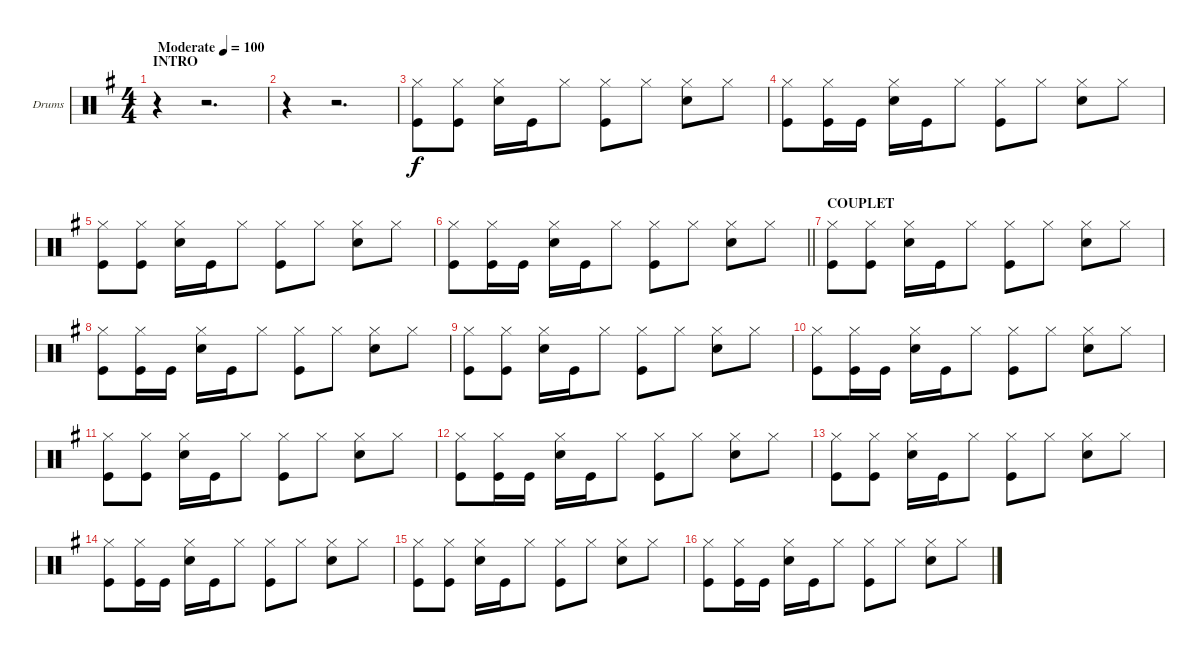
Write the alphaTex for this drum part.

\bracketExtendMode groupsimilarinstruments
\firstSystemTrackNameOrientation horizontal
\otherSystemsTrackNameOrientation horizontal
\track ("Drumkit" "Drums") {instrument percussion}
\staff {score}
\articulation defaults
\ts (4 4)
\beaming (8 2 2 2 2)
\section ("" "INTRO")
\tempo (100 "Moderate")
\clef neutral
\ks eminor
r.4{dy f} r.2{d} |
r.4 r.2{d} |
("Hi-Hat (closed)" "Kick (hit)").8 ("Hi-Hat (closed)" "Kick (hit)").8 ("Hi-Hat (closed)" "Snare (hit) 2").16 "Kick (hit)".16 "Hi-Hat (closed)".8 ("Hi-Hat (closed)" "Kick (hit)").8 "Hi-Hat (closed)".8 ("Hi-Hat (closed)" "Snare (hit) 2").8 "Hi-Hat (closed)".8 |
("Hi-Hat (closed)" "Kick (hit)").8 ("Hi-Hat (closed)" "Kick (hit)").16 "Kick (hit)".16 ("Hi-Hat (closed)" "Snare (hit) 2").16 "Kick (hit)".16 "Hi-Hat (closed)".8 ("Hi-Hat (closed)" "Kick (hit)").8 "Hi-Hat (closed)".8 ("Hi-Hat (closed)" "Snare (hit) 2").8 "Hi-Hat (closed)".8 |
("Hi-Hat (closed)" "Kick (hit)").8 ("Hi-Hat (closed)" "Kick (hit)").8 ("Hi-Hat (closed)" "Snare (hit) 2").16 "Kick (hit)".16 "Hi-Hat (closed)".8 ("Hi-Hat (closed)" "Kick (hit)").8 "Hi-Hat (closed)".8 ("Hi-Hat (closed)" "Snare (hit) 2").8 "Hi-Hat (closed)".8 |
\barLineRight lightlight
("Hi-Hat (closed)" "Kick (hit)").8 ("Hi-Hat (closed)" "Kick (hit)").16 "Kick (hit)".16 ("Hi-Hat (closed)" "Snare (hit) 2").16 "Kick (hit)".16 "Hi-Hat (closed)".8 ("Hi-Hat (closed)" "Kick (hit)").8 "Hi-Hat (closed)".8 ("Hi-Hat (closed)" "Snare (hit) 2").8 "Hi-Hat (closed)".8 |
\section ("" "COUPLET")
("Hi-Hat (closed)" "Kick (hit)").8 ("Hi-Hat (closed)" "Kick (hit)").8 ("Hi-Hat (closed)" "Snare (hit) 2").16 "Kick (hit)".16 "Hi-Hat (closed)".8 ("Hi-Hat (closed)" "Kick (hit)").8 "Hi-Hat (closed)".8 ("Hi-Hat (closed)" "Snare (hit) 2").8 "Hi-Hat (closed)".8 |
("Hi-Hat (closed)" "Kick (hit)").8 ("Hi-Hat (closed)" "Kick (hit)").16 "Kick (hit)".16 ("Hi-Hat (closed)" "Snare (hit) 2").16 "Kick (hit)".16 "Hi-Hat (closed)".8 ("Hi-Hat (closed)" "Kick (hit)").8 "Hi-Hat (closed)".8 ("Hi-Hat (closed)" "Snare (hit) 2").8 "Hi-Hat (closed)".8 |
("Hi-Hat (closed)" "Kick (hit)").8 ("Hi-Hat (closed)" "Kick (hit)").8 ("Hi-Hat (closed)" "Snare (hit) 2").16 "Kick (hit)".16 "Hi-Hat (closed)".8 ("Hi-Hat (closed)" "Kick (hit)").8 "Hi-Hat (closed)".8 ("Hi-Hat (closed)" "Snare (hit) 2").8 "Hi-Hat (closed)".8 |
("Hi-Hat (closed)" "Kick (hit)").8 ("Hi-Hat (closed)" "Kick (hit)").16 "Kick (hit)".16 ("Hi-Hat (closed)" "Snare (hit) 2").16 "Kick (hit)".16 "Hi-Hat (closed)".8 ("Hi-Hat (closed)" "Kick (hit)").8 "Hi-Hat (closed)".8 ("Hi-Hat (closed)" "Snare (hit) 2").8 "Hi-Hat (closed)".8 |
("Hi-Hat (closed)" "Kick (hit)").8 ("Hi-Hat (closed)" "Kick (hit)").8 ("Hi-Hat (closed)" "Snare (hit) 2").16 "Kick (hit)".16 "Hi-Hat (closed)".8 ("Hi-Hat (closed)" "Kick (hit)").8 "Hi-Hat (closed)".8 ("Hi-Hat (closed)" "Snare (hit) 2").8 "Hi-Hat (closed)".8 |
("Hi-Hat (closed)" "Kick (hit)").8 ("Hi-Hat (closed)" "Kick (hit)").16 "Kick (hit)".16 ("Hi-Hat (closed)" "Snare (hit) 2").16 "Kick (hit)".16 "Hi-Hat (closed)".8 ("Hi-Hat (closed)" "Kick (hit)").8 "Hi-Hat (closed)".8 ("Hi-Hat (closed)" "Snare (hit) 2").8 "Hi-Hat (closed)".8 |
("Hi-Hat (closed)" "Kick (hit)").8 ("Hi-Hat (closed)" "Kick (hit)").8 ("Hi-Hat (closed)" "Snare (hit) 2").16 "Kick (hit)".16 "Hi-Hat (closed)".8 ("Hi-Hat (closed)" "Kick (hit)").8 "Hi-Hat (closed)".8 ("Hi-Hat (closed)" "Snare (hit) 2").8 "Hi-Hat (closed)".8 |
("Hi-Hat (closed)" "Kick (hit)").8 ("Hi-Hat (closed)" "Kick (hit)").16 "Kick (hit)".16 ("Hi-Hat (closed)" "Snare (hit) 2").16 "Kick (hit)".16 "Hi-Hat (closed)".8 ("Hi-Hat (closed)" "Kick (hit)").8 "Hi-Hat (closed)".8 ("Hi-Hat (closed)" "Snare (hit) 2").8 "Hi-Hat (closed)".8 |
("Hi-Hat (closed)" "Kick (hit)").8 ("Hi-Hat (closed)" "Kick (hit)").8 ("Hi-Hat (closed)" "Snare (hit) 2").16 "Kick (hit)".16 "Hi-Hat (closed)".8 ("Hi-Hat (closed)" "Kick (hit)").8 "Hi-Hat (closed)".8 ("Hi-Hat (closed)" "Snare (hit) 2").8 "Hi-Hat (closed)".8 |
("Hi-Hat (closed)" "Kick (hit)").8 ("Hi-Hat (closed)" "Kick (hit)").16 "Kick (hit)".16 ("Hi-Hat (closed)" "Snare (hit) 2").16 "Kick (hit)".16 "Hi-Hat (closed)".8 ("Hi-Hat (closed)" "Kick (hit)").8 "Hi-Hat (closed)".8 ("Hi-Hat (closed)" "Snare (hit) 2").8 "Hi-Hat (closed)".8
